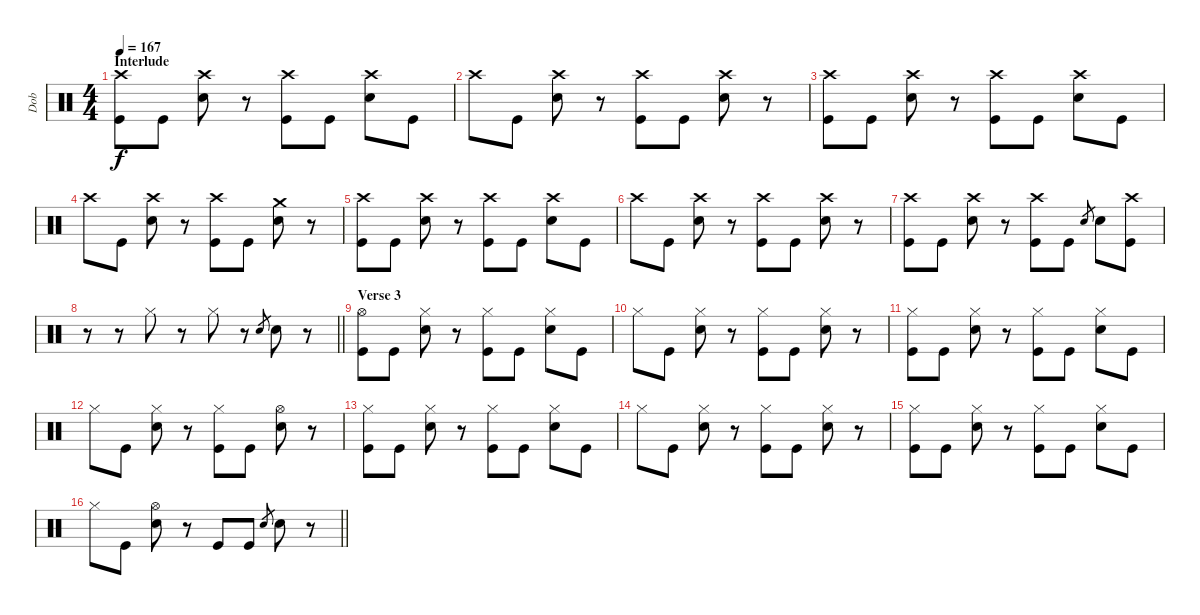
\track ("Dob" "Dob") {instrument percussion}
\staff {score}
\articulation defaults
\ts (4 4)
\section ("" "Interlude")
\tempo 167
\clef neutral
\ks c
("Crash high (hit)" "Kick (hit)").8{dy f} "Kick (hit)".8 ("Crash high (hit)" "Snare (hit) 2").8 r.8 ("Crash high (hit)" "Kick (hit)").8 "Kick (hit)".8 ("Crash high (hit)" "Snare (hit) 2").8 "Kick (hit)".8 |
"Crash high (hit)".8 "Kick (hit)".8 ("Crash high (hit)" "Snare (hit) 2").8 r.8 ("Crash high (hit)" "Kick (hit)").8 "Kick (hit)".8 ("Crash high (hit)" "Snare (hit) 2").8 r.8 |
("Crash high (hit)" "Kick (hit)").8 "Kick (hit)".8 ("Crash high (hit)" "Snare (hit) 2").8 r.8 ("Crash high (hit)" "Kick (hit)").8 "Kick (hit)".8 ("Crash high (hit)" "Snare (hit) 2").8 "Kick (hit)".8 |
"Crash high (hit)".8 "Kick (hit)".8 ("Crash high (hit)" "Snare (hit) 2").8 r.8 ("Crash high (hit)" "Kick (hit)").8 "Kick (hit)".8 ("Crash medium (hit)" "Snare (hit) 2").8 r.8 |
("Crash high (hit)" "Kick (hit)").8 "Kick (hit)".8 ("Crash high (hit)" "Snare (hit) 2").8 r.8 ("Crash high (hit)" "Kick (hit)").8 "Kick (hit)".8 ("Crash high (hit)" "Snare (hit) 2").8 "Kick (hit)".8 |
"Crash high (hit)".8 "Kick (hit)".8 ("Crash high (hit)" "Snare (hit) 2").8 r.8 ("Crash high (hit)" "Kick (hit)").8 "Kick (hit)".8 ("Crash high (hit)" "Snare (hit) 2").8 r.8 |
("Crash high (hit)" "Kick (hit)").8 "Kick (hit)".8 ("Crash high (hit)" "Snare (hit) 2").8 r.8 ("Crash high (hit)" "Kick (hit)").8 "Kick (hit)".8 "Snare (hit) 2".8{gr} "Snare (hit) 2".8 ("Crash high (hit)" "Kick (hit)").8 |
\barLineRight lightlight
r.8 r.8 "Hi-Hat (closed)".8 r.8 "Hi-Hat (closed)".8 r.8 "Snare (hit) 2".8{gr} "Snare (hit) 2".8 r.8 |
\section ("" "Verse 3")
("Hi-Hat (open)" "Kick (hit)").8 "Kick (hit)".8 ("Hi-Hat (closed)" "Snare (hit) 2").8 r.8 ("Hi-Hat (closed)" "Kick (hit)").8 "Kick (hit)".8 ("Hi-Hat (closed)" "Snare (hit) 2").8 "Kick (hit)".8 |
"Hi-Hat (closed)".8 "Kick (hit)".8 ("Hi-Hat (closed)" "Snare (hit) 2").8 r.8 ("Hi-Hat (closed)" "Kick (hit)").8 "Kick (hit)".8 ("Hi-Hat (closed)" "Snare (hit) 2").8 r.8 |
("Hi-Hat (closed)" "Kick (hit)").8 "Kick (hit)".8 ("Hi-Hat (closed)" "Snare (hit) 2").8 r.8 ("Hi-Hat (closed)" "Kick (hit)").8 "Kick (hit)".8 ("Hi-Hat (closed)" "Snare (hit) 2").8 "Kick (hit)".8 |
"Hi-Hat (closed)".8 "Kick (hit)".8 ("Hi-Hat (closed)" "Snare (hit) 2").8 r.8 ("Hi-Hat (closed)" "Kick (hit)").8 "Kick (hit)".8 ("Hi-Hat (open)" "Snare (hit) 2").8 r.8 |
("Hi-Hat (closed)" "Kick (hit)").8 "Kick (hit)".8 ("Hi-Hat (closed)" "Snare (hit) 2").8 r.8 ("Hi-Hat (closed)" "Kick (hit)").8 "Kick (hit)".8 ("Hi-Hat (closed)" "Snare (hit) 2").8 "Kick (hit)".8 |
"Hi-Hat (closed)".8 "Kick (hit)".8 ("Hi-Hat (closed)" "Snare (hit) 2").8 r.8 ("Hi-Hat (closed)" "Kick (hit)").8 "Kick (hit)".8 ("Hi-Hat (closed)" "Snare (hit) 2").8 r.8 |
("Hi-Hat (closed)" "Kick (hit)").8 "Kick (hit)".8 ("Hi-Hat (closed)" "Snare (hit) 2").8 r.8 ("Hi-Hat (closed)" "Kick (hit)").8 "Kick (hit)".8 ("Hi-Hat (closed)" "Snare (hit) 2").8 "Kick (hit)".8 |
\barLineRight lightlight "Hi-Hat (closed)".8 "Kick (hit)".8
("Hi-Hat (open)" "Snare (hit) 2").8 r.8 "Kick (hit)".8 "Kick (hit)".8 "Snare (hit) 2".8{gr} "Snare (hit) 2".8 r.8
